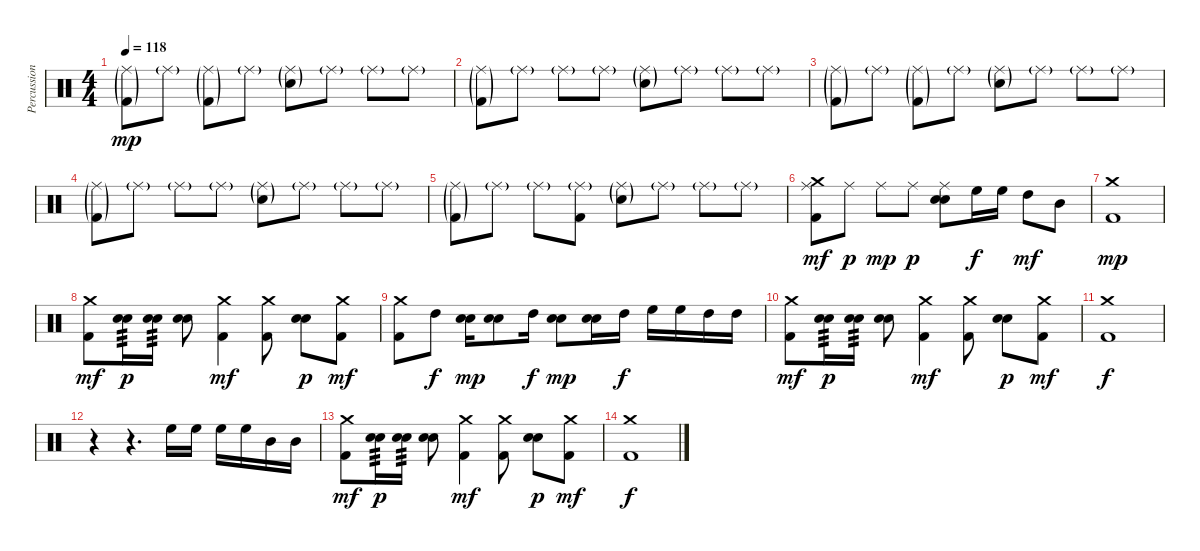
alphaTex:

\track ("Percussion" "Percussion") {instrument percussion}
\staff {score}
\articulation defaults
\ts (4 4)
\tempo 118
\clef neutral
\ks c
("Ride (middle)"{g} "Kick (hit) 2"{g}).8{dy mp} "Ride (middle)"{g}.8 ("Ride (middle)"{g} "Kick (hit) 2"{g}).8 "Ride (middle)"{g}.8 ("Ride (middle)"{g} "Electric Snare (hit)"{g}).8 "Ride (middle)"{g}.8 "Ride (middle)"{g}.8 "Ride (middle)"{g}.8 |
("Ride (middle)"{g} "Kick (hit) 2"{g}).8 "Ride (middle)"{g}.8 "Ride (middle)"{g}.8 "Ride (middle)"{g}.8 ("Ride (middle)"{g} "Electric Snare (hit)"{g}).8 "Ride (middle)"{g}.8 "Ride (middle)"{g}.8 "Ride (middle)"{g}.8 |
("Ride (middle)"{g} "Kick (hit) 2"{g}).8 "Ride (middle)"{g}.8 ("Ride (middle)"{g} "Kick (hit) 2"{g}).8 "Ride (middle)"{g}.8 ("Ride (middle)"{g} "Electric Snare (hit)"{g}).8 "Ride (middle)"{g}.8 "Ride (middle)"{g}.8 "Ride (middle)"{g}.8 |
("Ride (middle)"{g} "Kick (hit) 2"{g}).8 "Ride (middle)"{g}.8 "Ride (middle)"{g}.8 "Ride (middle)"{g}.8 ("Ride (middle)"{g} "Electric Snare (hit)"{g}).8 "Ride (middle)"{g}.8 "Ride (middle)"{g}.8 "Ride (middle)"{g}.8 |
("Ride (middle)"{g} "Kick (hit) 2"{g}).8 "Ride (middle)"{g}.8 "Ride (middle)"{g}.8 ("Ride (middle)"{g} "Kick (hit) 2").8 ("Ride (middle)"{g} "Electric Snare (hit)"{g}).8 "Ride (middle)"{g}.8 "Ride (middle)"{g}.8 "Ride (middle)"{g}.8 |
("Crash medium (hit)" "Ride (middle)" "Kick (hit) 2").8{dy mf} "Ride (middle)".8{dy p} "Ride (middle)".8{dy mp} "Ride (middle)".8{dy p} ("Ride (middle)" "Electric Snare (hit)" "Snare (hit) 2").8 "High Floor Tom (hit)".16{dy f} "High Floor Tom (hit)".16 "High Tom (hit)".8{dy mf} "Mid Tom (hit)".8 |
("Crash medium (hit)" "Kick (hit) 2").1{dy mp} |
("Crash medium (hit)" "Kick (hit) 2").8{dy mf} ("Electric Snare (hit)" "Snare (hit) 2").16{tp 3 dy p} ("Electric Snare (hit)" "Snare (hit) 2").16{tp 3} ("Electric Snare (hit)" "Snare (hit) 2").8 ("Crash medium (hit)" "Kick (hit) 2").4{dy mf} ("Crash medium (hit)" "Kick (hit) 2").8 ("Electric Snare (hit)" "Snare (hit) 2").8{dy p} ("Crash medium (hit)" "Kick (hit) 2").8{dy mf} |
("Crash medium (hit)" "Kick (hit) 2").8 "High Tom (hit)".8{dy f} ("Electric Snare (hit)" "Snare (hit) 2").16{dy mp} ("Electric Snare (hit)" "Snare (hit) 2").8 "High Tom (hit)".16{dy f} ("Electric Snare (hit)" "Snare (hit) 2").8{dy mp} ("Electric Snare (hit)" "Snare (hit) 2").16 "High Tom (hit)".16{dy f} "High Floor Tom (hit)".16 "High Floor Tom (hit)".16 "High Tom (hit)".16 "High Tom (hit)".16 |
("Crash medium (hit)" "Kick (hit) 2").8{dy mf} ("Electric Snare (hit)" "Snare (hit) 2").16{tp 3 dy p} ("Electric Snare (hit)" "Snare (hit) 2").16{tp 3} ("Electric Snare (hit)" "Snare (hit) 2").8 ("Crash medium (hit)" "Kick (hit) 2").4{dy mf} ("Crash medium (hit)" "Kick (hit) 2").8 ("Electric Snare (hit)" "Snare (hit) 2").8{dy p} ("Crash medium (hit)" "Kick (hit) 2").8{dy mf} |
("Crash medium (hit)" "Kick (hit) 2").1{dy f} |
r.4 r.4{d} "High Floor Tom (hit)".16 "High Floor Tom (hit)".16 "High Floor Tom (hit)".16 "High Floor Tom (hit)".16 "Mid Tom (hit)".16 "Mid Tom (hit)".16 |
("Crash medium (hit)" "Kick (hit) 2").8{dy mf} ("Electric Snare (hit)" "Snare (hit) 2").16{tp 3 dy p} ("Electric Snare (hit)" "Snare (hit) 2").16{tp 3} ("Electric Snare (hit)" "Snare (hit) 2").8 ("Crash medium (hit)" "Kick (hit) 2").4{dy mf} ("Crash medium (hit)" "Kick (hit) 2").8 ("Electric Snare (hit)" "Snare (hit) 2").8{dy p} ("Crash medium (hit)" "Kick (hit) 2").8{dy mf} |
("Crash medium (hit)" "Kick (hit) 2").1{dy f}
